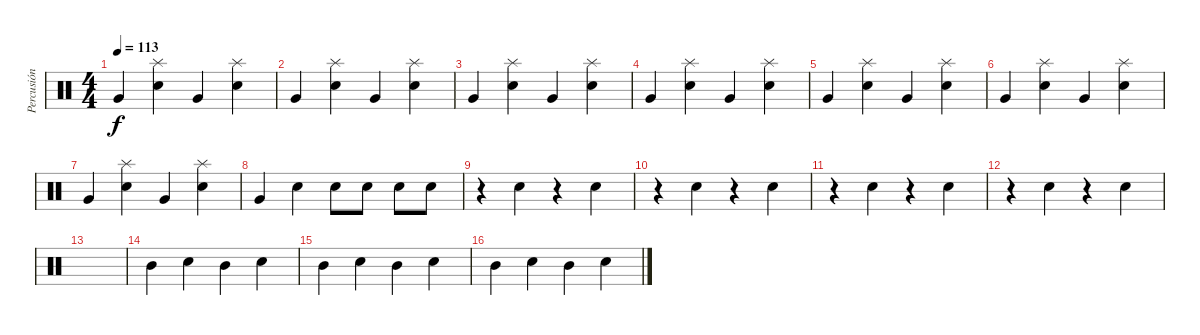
\track ("Percusión" "Percusión") {instrument percussion}
\staff {score}
\articulation defaults
\ts (4 4)
\tempo 113
\clef neutral
\ks c "Very Low Tom (hit)".4{dy f}
("Snare (hit) 2" "Splash (hit)").4 "Very Low Tom (hit)".4 ("Snare (hit) 2" "Splash (hit)").4 |
"Very Low Tom (hit)".4 ("Snare (hit) 2" "Splash (hit)").4 "Very Low Tom (hit)".4 ("Snare (hit) 2" "Splash (hit)").4 |
"Very Low Tom (hit)".4 ("Snare (hit) 2" "Splash (hit)").4 "Very Low Tom (hit)".4 ("Snare (hit) 2" "Splash (hit)").4 |
"Very Low Tom (hit)".4 ("Snare (hit) 2" "Splash (hit)").4 "Very Low Tom (hit)".4 ("Snare (hit) 2" "Splash (hit)").4 |
"Very Low Tom (hit)".4 ("Snare (hit) 2" "Splash (hit)").4 "Very Low Tom (hit)".4 ("Snare (hit) 2" "Splash (hit)").4 |
"Very Low Tom (hit)".4 ("Snare (hit) 2" "Splash (hit)").4 "Very Low Tom (hit)".4 ("Snare (hit) 2" "Splash (hit)").4 |
"Very Low Tom (hit)".4 ("Snare (hit) 2" "Splash (hit)").4 "Very Low Tom (hit)".4 ("Snare (hit) 2" "Splash (hit)").4 |
"Very Low Tom (hit)".4 "Snare (hit) 2".4 "Snare (hit) 2".8 "Snare (hit) 2".8 "Snare (hit) 2".8 "Snare (hit) 2".8 |
r.4 "Snare (hit) 2".4 r.4 "Snare (hit) 2".4 |
r.4 "Snare (hit) 2".4 r.4 "Snare (hit) 2".4 |
r.4 "Snare (hit) 2".4 r.4 "Snare (hit) 2".4 |
r.4 "Snare (hit) 2".4 r.4 "Snare (hit) 2".4 |
|
"Mid Tom (hit)".4 "Snare (hit) 2".4 "Mid Tom (hit)".4 "Snare (hit) 2".4 |
"Mid Tom (hit)".4 "Snare (hit) 2".4 "Mid Tom (hit)".4 "Snare (hit) 2".4 |
"Mid Tom (hit)".4 "Snare (hit) 2".4 "Mid Tom (hit)".4 "Snare (hit) 2".4
